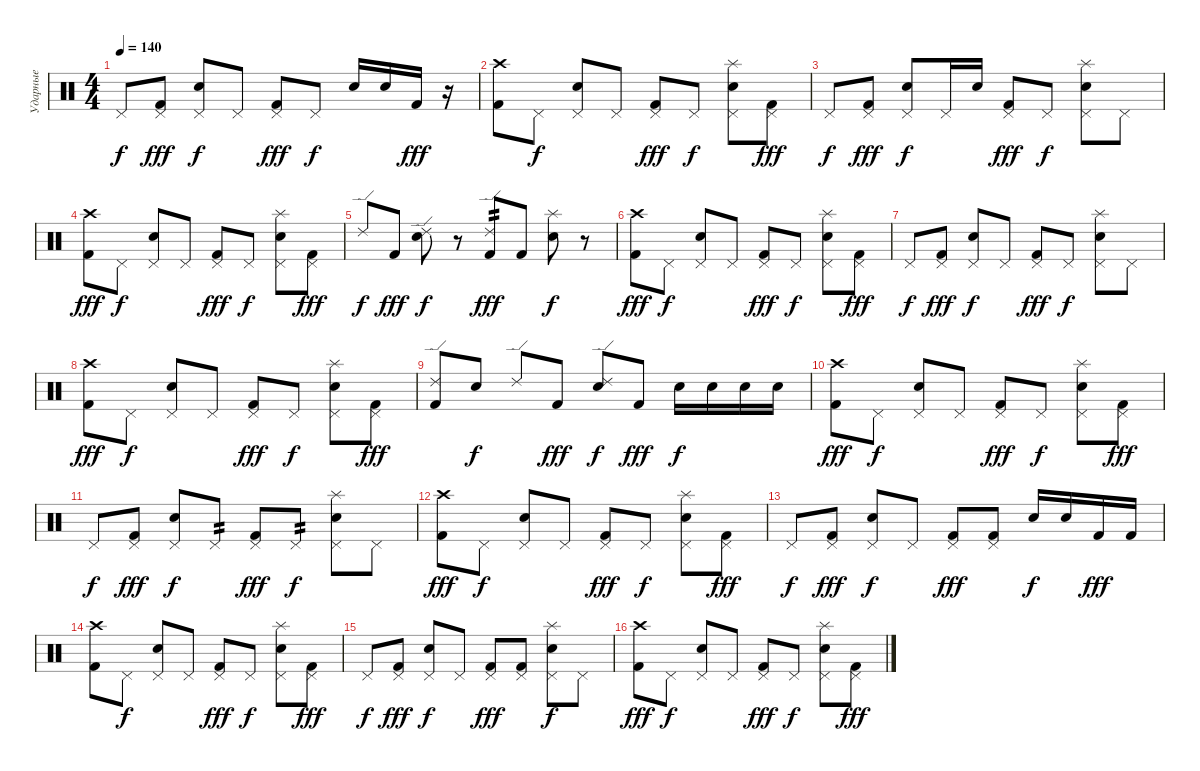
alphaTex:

\track ("Ударные" "Ударные") {instrument percussion}
\staff {score}
\articulation defaults
\ts (4 4)
\tempo 140
\clef neutral
\ks c "Pedal Hi-Hat (hit)".8{dy f}
("Pedal Hi-Hat (hit)" "Kick (hit) 2").8{dy fff} ("Pedal Hi-Hat (hit)" "Electric Snare (hit)").8{dy f} "Pedal Hi-Hat (hit)".8 ("Pedal Hi-Hat (hit)" "Kick (hit) 2").8{dy fff} "Pedal Hi-Hat (hit)".8{dy f} "Electric Snare (hit)".16 "Electric Snare (hit)".16 "Kick (hit) 2".16{dy fff} r.16 |
("Crash high (hit)" "Kick (hit) 2").8 "Pedal Hi-Hat (hit)".8{dy f} ("Pedal Hi-Hat (hit)" "Electric Snare (hit)").8 "Pedal Hi-Hat (hit)".8 ("Pedal Hi-Hat (hit)" "Kick (hit) 2").8{dy fff} "Pedal Hi-Hat (hit)".8{dy f} ("Splash (hit)" "Pedal Hi-Hat (hit)" "Electric Snare (hit)").8 ("Pedal Hi-Hat (hit)" "Kick (hit) 2").8{dy fff} |
"Pedal Hi-Hat (hit)".8{dy f} ("Pedal Hi-Hat (hit)" "Kick (hit) 2").8{dy fff} ("Pedal Hi-Hat (hit)" "Electric Snare (hit)").8{dy f} "Pedal Hi-Hat (hit)".16 "Electric Snare (hit)".16 ("Pedal Hi-Hat (hit)" "Kick (hit) 2").8{dy fff} "Pedal Hi-Hat (hit)".8{dy f} ("Splash (hit)" "Pedal Hi-Hat (hit)" "Electric Snare (hit)").8 "Pedal Hi-Hat (hit)".8 |
("Crash high (hit)" "Kick (hit) 2").8{dy fff} "Pedal Hi-Hat (hit)".8{dy f} ("Pedal Hi-Hat (hit)" "Electric Snare (hit)").8 "Pedal Hi-Hat (hit)".8 ("Pedal Hi-Hat (hit)" "Kick (hit) 2").8{dy fff} "Pedal Hi-Hat (hit)".8{dy f} ("Splash (hit)" "Pedal Hi-Hat (hit)" "Electric Snare (hit)").8 ("Pedal Hi-Hat (hit)" "Kick (hit) 2").8{dy fff} |
"Ride (edge) 2".8{dy f} "Kick (hit) 2".8{dy fff} ("Ride (edge) 2" "Electric Snare (hit)").8{dy f} r.8 ("Ride (edge) 2" "Kick (hit) 2").8{tp 2 dy fff} "Kick (hit) 2".8 ("Splash (hit)" "Electric Snare (hit)").8{dy f} r.8 |
("Crash high (hit)" "Kick (hit) 2").8{dy fff} "Pedal Hi-Hat (hit)".8{dy f} ("Pedal Hi-Hat (hit)" "Electric Snare (hit)").8 "Pedal Hi-Hat (hit)".8 ("Pedal Hi-Hat (hit)" "Kick (hit) 2").8{dy fff} "Pedal Hi-Hat (hit)".8{dy f} ("Splash (hit)" "Pedal Hi-Hat (hit)" "Electric Snare (hit)").8 ("Pedal Hi-Hat (hit)" "Kick (hit) 2").8{dy fff} |
"Pedal Hi-Hat (hit)".8{dy f} ("Pedal Hi-Hat (hit)" "Kick (hit) 2").8{dy fff} ("Pedal Hi-Hat (hit)" "Electric Snare (hit)").8{dy f} "Pedal Hi-Hat (hit)".8 ("Pedal Hi-Hat (hit)" "Kick (hit) 2").8{dy fff} "Pedal Hi-Hat (hit)".8{dy f} ("Splash (hit)" "Pedal Hi-Hat (hit)" "Electric Snare (hit)").8 "Pedal Hi-Hat (hit)".8 |
("Crash high (hit)" "Kick (hit) 2").8{dy fff} "Pedal Hi-Hat (hit)".8{dy f} ("Pedal Hi-Hat (hit)" "Electric Snare (hit)").8 "Pedal Hi-Hat (hit)".8 ("Pedal Hi-Hat (hit)" "Kick (hit) 2").8{dy fff} "Pedal Hi-Hat (hit)".8{dy f} ("Splash (hit)" "Pedal Hi-Hat (hit)" "Electric Snare (hit)").8 ("Pedal Hi-Hat (hit)" "Kick (hit) 2").8{dy fff} |
("Ride (edge) 2" "Kick (hit) 2").8 "Electric Snare (hit)".8{dy f} "Ride (edge) 2".8 "Kick (hit) 2".8{dy fff} ("Ride (edge) 2" "Electric Snare (hit)").8{dy f} "Kick (hit) 2".8{dy fff} "Electric Snare (hit)".16{dy f} "Electric Snare (hit)".16 "Electric Snare (hit)".16 "Electric Snare (hit)".16 |
("Crash high (hit)" "Kick (hit) 2").8{dy fff} "Pedal Hi-Hat (hit)".8{dy f} ("Pedal Hi-Hat (hit)" "Electric Snare (hit)").8 "Pedal Hi-Hat (hit)".8 ("Pedal Hi-Hat (hit)" "Kick (hit) 2").8{dy fff} "Pedal Hi-Hat (hit)".8{dy f} ("Splash (hit)" "Pedal Hi-Hat (hit)" "Electric Snare (hit)").8 ("Pedal Hi-Hat (hit)" "Kick (hit) 2").8{dy fff} |
"Pedal Hi-Hat (hit)".8{dy f} ("Pedal Hi-Hat (hit)" "Kick (hit) 2").8{dy fff} ("Pedal Hi-Hat (hit)" "Electric Snare (hit)").8{dy f} "Pedal Hi-Hat (hit)".8{tp 2} ("Pedal Hi-Hat (hit)" "Kick (hit) 2").8{dy fff} "Pedal Hi-Hat (hit)".8{tp 2 dy f} ("Splash (hit)" "Pedal Hi-Hat (hit)" "Electric Snare (hit)").8 "Pedal Hi-Hat (hit)".8 |
("Crash high (hit)" "Kick (hit) 2").8{dy fff} "Pedal Hi-Hat (hit)".8{dy f} ("Pedal Hi-Hat (hit)" "Electric Snare (hit)").8 "Pedal Hi-Hat (hit)".8 ("Pedal Hi-Hat (hit)" "Kick (hit) 2").8{dy fff} "Pedal Hi-Hat (hit)".8{dy f} ("Splash (hit)" "Pedal Hi-Hat (hit)" "Electric Snare (hit)").8 ("Pedal Hi-Hat (hit)" "Kick (hit) 2").8{dy fff} |
"Pedal Hi-Hat (hit)".8{dy f} ("Pedal Hi-Hat (hit)" "Kick (hit) 2").8{dy fff} ("Pedal Hi-Hat (hit)" "Electric Snare (hit)").8{dy f} "Pedal Hi-Hat (hit)".8 ("Pedal Hi-Hat (hit)" "Kick (hit) 2").8{dy fff} ("Pedal Hi-Hat (hit)" "Kick (hit) 2").8 "Electric Snare (hit)".16{dy f} "Electric Snare (hit)".16 "Kick (hit) 2".16{dy fff} "Kick (hit) 2".16 |
("Crash high (hit)" "Kick (hit) 2").8 "Pedal Hi-Hat (hit)".8{dy f} ("Pedal Hi-Hat (hit)" "Electric Snare (hit)").8 "Pedal Hi-Hat (hit)".8 ("Pedal Hi-Hat (hit)" "Kick (hit) 2").8{dy fff} "Pedal Hi-Hat (hit)".8{dy f} ("Splash (hit)" "Pedal Hi-Hat (hit)" "Electric Snare (hit)").8 ("Pedal Hi-Hat (hit)" "Kick (hit) 2").8{dy fff} |
"Pedal Hi-Hat (hit)".8{dy f} ("Pedal Hi-Hat (hit)" "Kick (hit) 2").8{dy fff} ("Pedal Hi-Hat (hit)" "Electric Snare (hit)").8{dy f} "Pedal Hi-Hat (hit)".8 ("Pedal Hi-Hat (hit)" "Kick (hit) 2").8{dy fff} ("Pedal Hi-Hat (hit)" "Kick (hit) 2").8 ("Splash (hit)" "Pedal Hi-Hat (hit)" "Electric Snare (hit)").8{dy f} "Pedal Hi-Hat (hit)".8 |
("Crash high (hit)" "Kick (hit) 2").8{dy fff} "Pedal Hi-Hat (hit)".8{dy f} ("Pedal Hi-Hat (hit)" "Electric Snare (hit)").8 "Pedal Hi-Hat (hit)".8 ("Pedal Hi-Hat (hit)" "Kick (hit) 2").8{dy fff} "Pedal Hi-Hat (hit)".8{dy f} ("Splash (hit)" "Pedal Hi-Hat (hit)" "Electric Snare (hit)").8 ("Pedal Hi-Hat (hit)" "Kick (hit) 2").8{dy fff}
